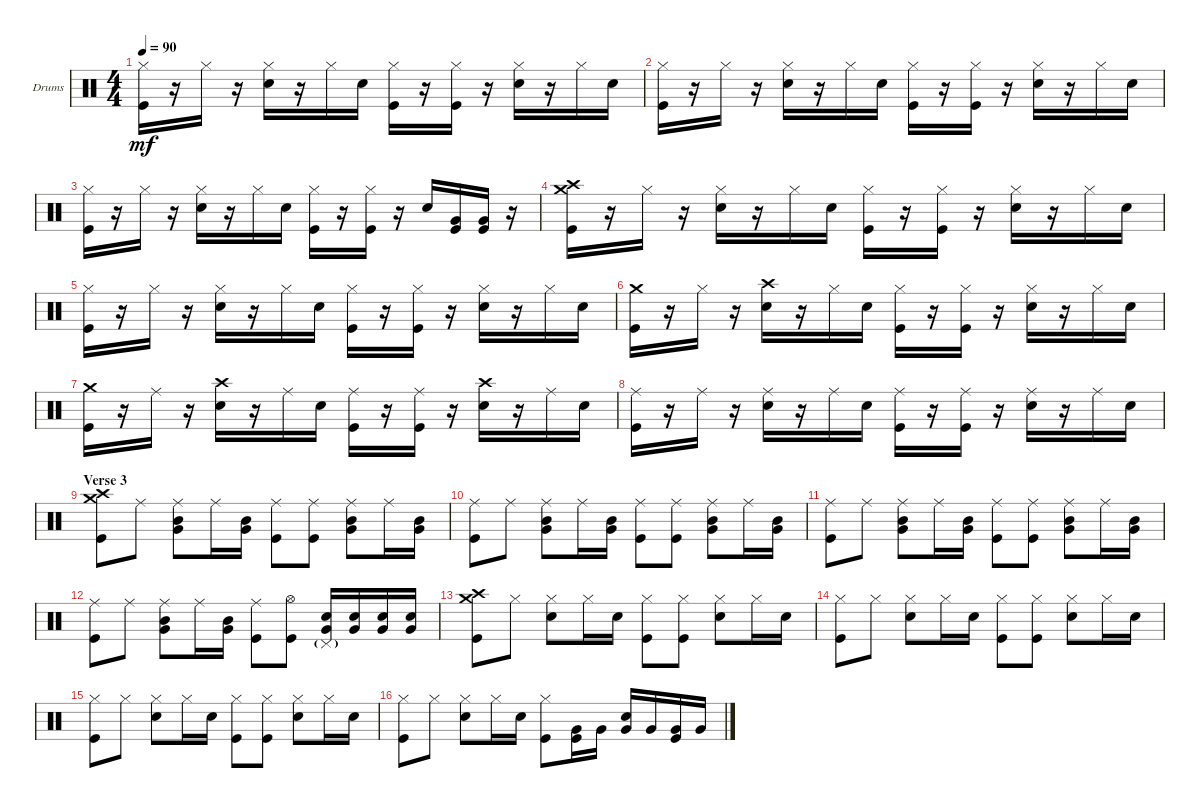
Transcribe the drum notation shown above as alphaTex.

\defaultSystemsLayout 4
\bracketExtendMode groupsimilarinstruments
\firstSystemTrackNameOrientation horizontal
\otherSystemsTrackNameOrientation horizontal
\track ("Drums" "Drums") {instrument percussion}
\staff {score}
\articulation defaults
\ts (4 4)
\tempo 90
\clef neutral
\ks c
("Hi-Hat (closed)" "Kick (hit)").16{dy mf} r.16 "Hi-Hat (closed)".16 r.16 ("Hi-Hat (closed)" "Snare (hit) 2").16 r.16 "Hi-Hat (closed)".16 "Snare (hit) 2".16 ("Hi-Hat (closed)" "Kick (hit)").16 r.16 ("Hi-Hat (closed)" "Kick (hit)").16 r.16 ("Hi-Hat (closed)" "Snare (hit) 2").16 r.16 "Hi-Hat (closed)".16 "Snare (hit) 2".16 |
("Hi-Hat (closed)" "Kick (hit)").16 r.16 "Hi-Hat (closed)".16 r.16 ("Hi-Hat (closed)" "Snare (hit) 2").16 r.16 "Hi-Hat (closed)".16 "Snare (hit) 2".16 ("Hi-Hat (closed)" "Kick (hit)").16 r.16 ("Hi-Hat (closed)" "Kick (hit)").16 r.16 ("Hi-Hat (closed)" "Snare (hit) 2").16 r.16 "Hi-Hat (closed)".16 "Snare (hit) 2".16 |
("Hi-Hat (closed)" "Kick (hit)").16 r.16 "Hi-Hat (closed)".16 r.16 ("Hi-Hat (closed)" "Snare (hit) 2").16 r.16 "Hi-Hat (closed)".16 "Snare (hit) 2".16 ("Hi-Hat (closed)" "Kick (hit)").16 r.16 ("Hi-Hat (closed)" "Kick (hit)").16 r.16 "Snare (hit) 2".16 ("Very Low Tom (hit)" "Kick (hit)").16 ("Very Low Tom (hit)" "Kick (hit)").16 r.16 |
("Crash high (hit)" "Crash medium (hit)" "Kick (hit)").16 r.16 "Hi-Hat (closed)".16 r.16 ("Hi-Hat (closed)" "Snare (hit) 2").16 r.16 "Hi-Hat (closed)".16 "Snare (hit) 2".16 ("Hi-Hat (closed)" "Kick (hit)").16 r.16 ("Hi-Hat (closed)" "Kick (hit)").16 r.16 ("Hi-Hat (closed)" "Snare (hit) 2").16 r.16 "Hi-Hat (closed)".16 "Snare (hit) 2".16 |
("Hi-Hat (closed)" "Kick (hit)").16 r.16 "Hi-Hat (closed)".16 r.16 ("Hi-Hat (closed)" "Snare (hit) 2").16 r.16 "Hi-Hat (closed)".16 "Snare (hit) 2".16 ("Hi-Hat (closed)" "Kick (hit)").16 r.16 ("Hi-Hat (closed)" "Kick (hit)").16 r.16 ("Hi-Hat (closed)" "Snare (hit) 2").16 r.16 "Hi-Hat (closed)".16 "Snare (hit) 2".16 |
("Crash medium (hit)" "Kick (hit)").16 r.16 "Hi-Hat (closed)".16 r.16 ("Crash high (hit)" "Snare (hit) 2").16 r.16 "Hi-Hat (closed)".16 "Snare (hit) 2".16 ("Hi-Hat (closed)" "Kick (hit)").16 r.16 ("Hi-Hat (closed)" "Kick (hit)").16 r.16 ("Hi-Hat (closed)" "Snare (hit) 2").16 r.16 "Hi-Hat (closed)".16 "Snare (hit) 2".16 |
("Crash medium (hit)" "Kick (hit)").16 r.16 "Ride (middle)".16 r.16 ("Crash high (hit)" "Snare (hit) 2").16 r.16 "Ride (middle)".16 "Snare (hit) 2".16 ("Ride (middle)" "Kick (hit)").16 r.16 ("Ride (middle)" "Kick (hit)").16 r.16 ("Crash high (hit)" "Snare (hit) 2").16 r.16 "Ride (middle)".16 "Snare (hit) 2".16 |
("Ride (middle)" "Kick (hit)").16 r.16 "Ride (middle)".16 r.16 ("Ride (middle)" "Snare (hit) 2").16 r.16 "Ride (middle)".16 "Snare (hit) 2".16 ("Ride (middle)" "Kick (hit)").16 r.16 ("Ride (middle)" "Kick (hit)").16 r.16 ("Ride (middle)" "Snare (hit) 2").16 r.16 "Ride (middle)".16 "Snare (hit) 2".16 |
\section ("" "Verse 3")
("Crash medium (hit)" "Crash high (hit)" "Kick (hit)").8 "Ride (middle)".8 ("Ride (middle)" "Very Low Tom (hit)" "Mid Tom (hit)").8 "Ride (middle)".16 ("Very Low Tom (hit)" "Mid Tom (hit)").16 ("Ride (middle)" "Kick (hit)").8 ("Ride (middle)" "Kick (hit)").8 ("Ride (middle)" "Very Low Tom (hit)" "Mid Tom (hit)").8 "Ride (middle)".16 ("Very Low Tom (hit)" "Mid Tom (hit)").16 |
("Ride (middle)" "Kick (hit)").8 "Ride (middle)".8 ("Ride (middle)" "Very Low Tom (hit)" "Mid Tom (hit)").8 "Ride (middle)".16 ("Very Low Tom (hit)" "Mid Tom (hit)").16 ("Ride (middle)" "Kick (hit)").8 ("Ride (middle)" "Kick (hit)").8 ("Ride (middle)" "Very Low Tom (hit)" "Mid Tom (hit)").8 "Ride (middle)".16 ("Very Low Tom (hit)" "Mid Tom (hit)").16 |
("Ride (middle)" "Kick (hit)").8 "Ride (middle)".8 ("Ride (middle)" "Very Low Tom (hit)" "Mid Tom (hit)").8 "Ride (middle)".16 ("Very Low Tom (hit)" "Mid Tom (hit)").16 ("Ride (middle)" "Kick (hit)").8 ("Ride (middle)" "Kick (hit)").8 ("Ride (middle)" "Very Low Tom (hit)" "Mid Tom (hit)").8 "Ride (middle)".16 ("Very Low Tom (hit)" "Mid Tom (hit)").16 |
("Ride (middle)" "Kick (hit)").8 "Ride (middle)".8 ("Ride (middle)" "Very Low Tom (hit)" "Mid Tom (hit)").8 "Ride (middle)".16 ("Very Low Tom (hit)" "Mid Tom (hit)").16 ("Ride (middle)" "Kick (hit)").8 ("Hi-Hat (open)" "Kick (hit)").8 ("Pedal Hi-Hat (hit)"{g} "Very Low Tom (hit)" "Snare (hit) 2").16 ("Very Low Tom (hit)" "Snare (hit) 2").16 ("Very Low Tom (hit)" "Snare (hit) 2").16 ("Very Low Tom (hit)" "Snare (hit) 2").16 |
("Crash medium (hit)" "Crash high (hit)" "Kick (hit)").8 "Hi-Hat (closed)".8 ("Hi-Hat (closed)" "Snare (hit) 2").8 "Hi-Hat (closed)".16 "Snare (hit) 2".16 ("Hi-Hat (closed)" "Kick (hit)").8 ("Hi-Hat (closed)" "Kick (hit)").8 ("Hi-Hat (closed)" "Snare (hit) 2").8 "Hi-Hat (closed)".16 "Snare (hit) 2".16 |
("Hi-Hat (closed)" "Kick (hit)").8 "Hi-Hat (closed)".8 ("Hi-Hat (closed)" "Snare (hit) 2").8 "Hi-Hat (closed)".16 "Snare (hit) 2".16 ("Hi-Hat (closed)" "Kick (hit)").8 ("Hi-Hat (closed)" "Kick (hit)").8 ("Hi-Hat (closed)" "Snare (hit) 2").8 "Hi-Hat (closed)".16 "Snare (hit) 2".16 |
("Hi-Hat (closed)" "Kick (hit)").8 "Hi-Hat (closed)".8 ("Hi-Hat (closed)" "Snare (hit) 2").8 "Hi-Hat (closed)".16 "Snare (hit) 2".16 ("Hi-Hat (closed)" "Kick (hit)").8 ("Hi-Hat (closed)" "Kick (hit)").8 ("Hi-Hat (closed)" "Snare (hit) 2").8 "Hi-Hat (closed)".16 "Snare (hit) 2".16 |
("Hi-Hat (closed)" "Kick (hit)").8 "Hi-Hat (closed)".8 ("Hi-Hat (closed)" "Snare (hit) 2").8 "Hi-Hat (closed)".16 "Snare (hit) 2".16 ("Hi-Hat (closed)" "Kick (hit)").8 ("Very Low Tom (hit)" "Kick (hit)").16 "Very Low Tom (hit)".16 ("Very Low Tom (hit)" "Snare (hit) 2").16 "Very Low Tom (hit)".16 ("Very Low Tom (hit)" "Kick (hit)").16 "Very Low Tom (hit)".16
